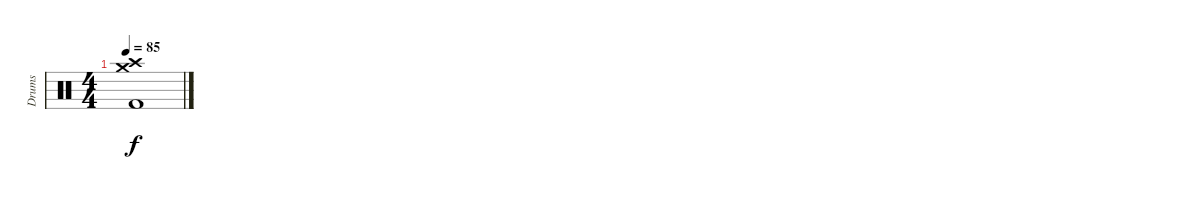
\track ("Drums" "Drums") {instrument percussion}
\staff {score}
\articulation defaults
\ts (4 4)
\tempo 85
\clef neutral
\ks c
("Crash medium (hit)" "Crash high (hit)" "Kick (hit) 2").1{dy f}
